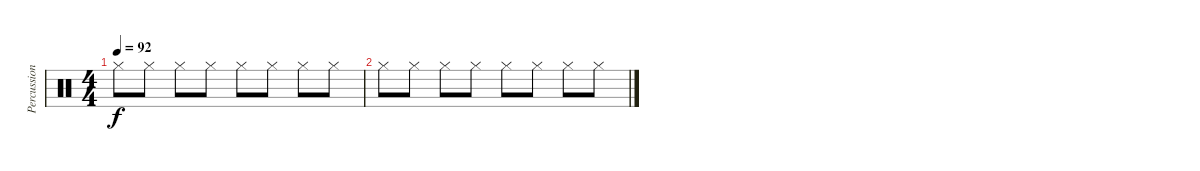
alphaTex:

\track ("Percussion" "Percussion") {instrument percussion}
\staff {score}
\articulation defaults
\ts (4 4)
\tempo 92
\clef neutral
\ks c "Hi-Hat (closed)".8{dy f} "Hi-Hat (closed)".8 "Hi-Hat (closed)".8 "Hi-Hat (closed)".8 "Hi-Hat (closed)".8 "Hi-Hat (closed)".8 "Hi-Hat (closed)".8 "Hi-Hat (closed)".8
|
"Hi-Hat (closed)".8 "Hi-Hat (closed)".8 "Hi-Hat (closed)".8 "Hi-Hat (closed)".8 "Hi-Hat (closed)".8 "Hi-Hat (closed)".8 "Hi-Hat (closed)".8 "Hi-Hat (closed)".8
